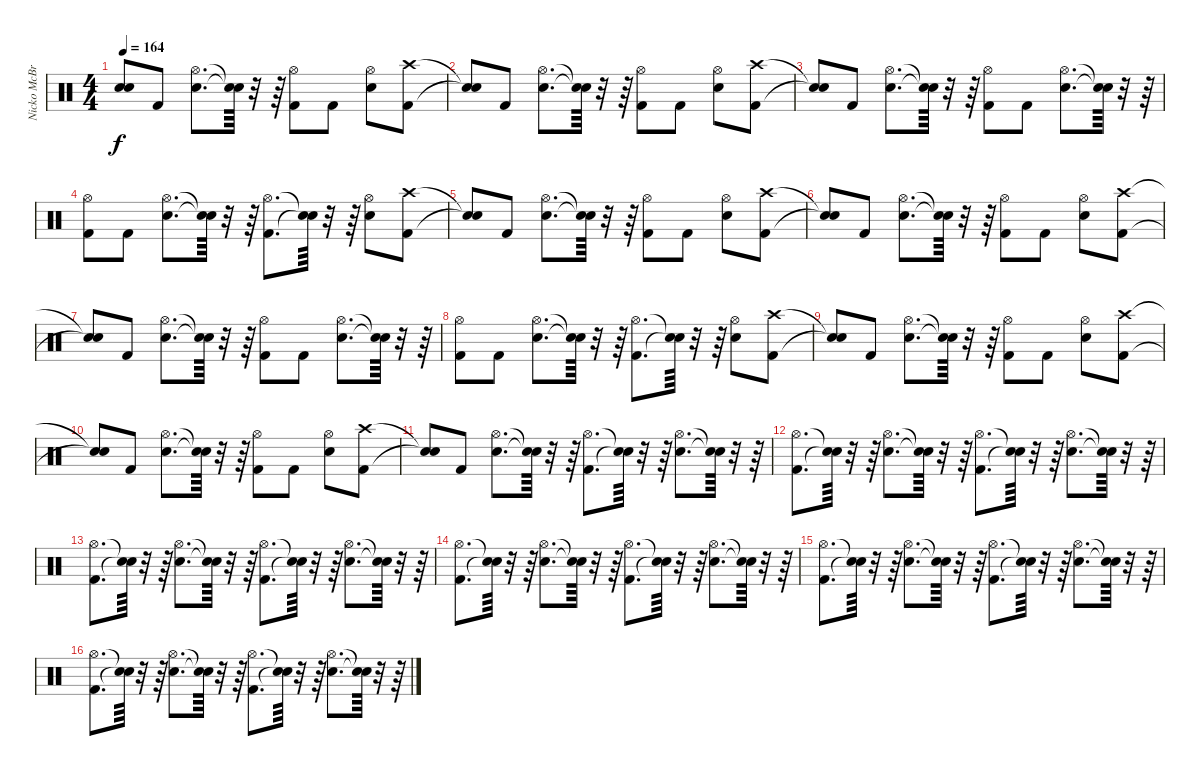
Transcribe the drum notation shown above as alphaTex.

\track ("Nicko McBrian (Drums)" "Nicko McBr") {instrument percussion}
\staff {score}
\articulation defaults
\ts (4 4)
\tempo 164
\clef neutral
\ks c
("Snare (hit)"{t} "Snare (hit)"{t}).8{dy f} "Kick (hit) 2".8 ("Snare (hit) 2" "Hi-Hat (open)").8{d} ("Snare (hit)"{t} "Snare (hit)"{t}).64 r.32 r.64 ("Kick (hit) 2" "Hi-Hat (open)").8 "Kick (hit) 2".8 ("Snare (hit) 2" "Hi-Hat (open)").8 ("Kick (hit) 2" "Crash high (hit)").8 |
("Snare (hit)"{t} "Snare (hit)"{t}).8 "Kick (hit) 2".8 ("Snare (hit) 2" "Hi-Hat (open)").8{d} ("Snare (hit)"{t} "Snare (hit)"{t}).64 r.32 r.64 ("Kick (hit) 2" "Hi-Hat (open)").8 "Kick (hit) 2".8 ("Snare (hit) 2" "Hi-Hat (open)").8 ("Kick (hit) 2" "Crash high (hit)").8 |
("Snare (hit)"{t} "Snare (hit)"{t}).8 "Kick (hit) 2".8 ("Snare (hit) 2" "Hi-Hat (open)").8{d} ("Snare (hit)"{t} "Snare (hit)"{t}).64 r.32 r.64 ("Kick (hit) 2" "Hi-Hat (open)").8 "Kick (hit) 2".8 ("Snare (hit) 2" "Hi-Hat (open)").8{d} ("Snare (hit)"{t} "Snare (hit)"{t}).64 r.32 r.64 |
("Kick (hit) 2" "Hi-Hat (open)").8 "Kick (hit) 2".8 ("Snare (hit) 2" "Hi-Hat (open)").8{d} ("Snare (hit)"{t} "Snare (hit)"{t}).64 r.32 r.64 ("Kick (hit) 2" "Hi-Hat (open)").8{d} ("Snare (hit)"{t} "Snare (hit)"{t}).64 r.32 r.64 ("Snare (hit) 2" "Hi-Hat (open)").8 ("Kick (hit) 2" "Crash high (hit)").8 |
("Snare (hit)"{t} "Snare (hit)"{t}).8 "Kick (hit) 2".8 ("Snare (hit) 2" "Hi-Hat (open)").8{d} ("Snare (hit)"{t} "Snare (hit)"{t}).64 r.32 r.64 ("Kick (hit) 2" "Hi-Hat (open)").8 "Kick (hit) 2".8 ("Snare (hit) 2" "Hi-Hat (open)").8 ("Kick (hit) 2" "Crash high (hit)").8 |
("Snare (hit)"{t} "Snare (hit)"{t}).8 "Kick (hit) 2".8 ("Snare (hit) 2" "Hi-Hat (open)").8{d} ("Snare (hit)"{t} "Snare (hit)"{t}).64 r.32 r.64 ("Kick (hit) 2" "Hi-Hat (open)").8 "Kick (hit) 2".8 ("Snare (hit) 2" "Hi-Hat (open)").8 ("Kick (hit) 2" "Crash high (hit)").8 |
("Snare (hit)"{t} "Snare (hit)"{t}).8 "Kick (hit) 2".8 ("Snare (hit) 2" "Hi-Hat (open)").8{d} ("Snare (hit)"{t} "Snare (hit)"{t}).64 r.32 r.64 ("Kick (hit) 2" "Hi-Hat (open)").8 "Kick (hit) 2".8 ("Snare (hit) 2" "Hi-Hat (open)").8{d} ("Snare (hit)"{t} "Snare (hit)"{t}).64 r.32 r.64 |
("Kick (hit) 2" "Hi-Hat (open)").8 "Kick (hit) 2".8 ("Snare (hit) 2" "Hi-Hat (open)").8{d} ("Snare (hit)"{t} "Snare (hit)"{t}).64 r.32 r.64 ("Kick (hit) 2" "Hi-Hat (open)").8{d} ("Snare (hit)"{t} "Snare (hit)"{t}).64 r.32 r.64 ("Snare (hit) 2" "Hi-Hat (open)").8 ("Kick (hit) 2" "Crash high (hit)").8 |
("Snare (hit)"{t} "Snare (hit)"{t}).8 "Kick (hit) 2".8 ("Snare (hit) 2" "Hi-Hat (open)").8{d} ("Snare (hit)"{t} "Snare (hit)"{t}).64 r.32 r.64 ("Kick (hit) 2" "Hi-Hat (open)").8 "Kick (hit) 2".8 ("Snare (hit) 2" "Hi-Hat (open)").8 ("Kick (hit) 2" "Crash high (hit)").8 |
("Snare (hit)"{t} "Snare (hit)"{t}).8 "Kick (hit) 2".8 ("Snare (hit) 2" "Hi-Hat (open)").8{d} ("Snare (hit)"{t} "Snare (hit)"{t}).64 r.32 r.64 ("Kick (hit) 2" "Hi-Hat (open)").8 "Kick (hit) 2".8 ("Snare (hit) 2" "Hi-Hat (open)").8 ("Kick (hit) 2" "Crash high (hit)").8 |
("Snare (hit)"{t} "Snare (hit)"{t}).8 "Kick (hit) 2".8 ("Snare (hit) 2" "Hi-Hat (open)").8{d} ("Snare (hit)"{t} "Snare (hit)"{t}).64 r.32 r.64 ("Kick (hit) 2" "Hi-Hat (open)").8{d} ("Snare (hit)"{t} "Snare (hit)"{t}).64 r.32 r.64 ("Snare (hit) 2" "Hi-Hat (open)").8{d} ("Snare (hit)"{t} "Snare (hit)"{t}).64 r.32 r.64 |
("Kick (hit) 2" "Hi-Hat (open)").8{d} ("Snare (hit)"{t} "Snare (hit)"{t}).64 r.32 r.64 ("Snare (hit) 2" "Hi-Hat (open)").8{d} ("Snare (hit)"{t} "Snare (hit)"{t}).64 r.32 r.64 ("Kick (hit) 2" "Hi-Hat (open)").8{d} ("Snare (hit)"{t} "Snare (hit)"{t}).64 r.32 r.64 ("Snare (hit) 2" "Hi-Hat (open)").8{d} ("Snare (hit)"{t} "Snare (hit)"{t}).64 r.32 r.64 |
("Kick (hit) 2" "Hi-Hat (open)").8{d} ("Snare (hit)"{t} "Snare (hit)"{t}).64 r.32 r.64 ("Snare (hit) 2" "Hi-Hat (open)").8{d} ("Snare (hit)"{t} "Snare (hit)"{t}).64 r.32 r.64 ("Kick (hit) 2" "Hi-Hat (open)").8{d} ("Snare (hit)"{t} "Snare (hit)"{t}).64 r.32 r.64 ("Snare (hit) 2" "Hi-Hat (open)").8{d} ("Snare (hit)"{t} "Snare (hit)"{t}).64 r.32 r.64 |
("Kick (hit) 2" "Hi-Hat (open)").8{d} ("Snare (hit)"{t} "Snare (hit)"{t}).64 r.32 r.64 ("Snare (hit) 2" "Hi-Hat (open)").8{d} ("Snare (hit)"{t} "Snare (hit)"{t}).64 r.32 r.64 ("Kick (hit) 2" "Hi-Hat (open)").8{d} ("Snare (hit)"{t} "Snare (hit)"{t}).64 r.32 r.64 ("Snare (hit) 2" "Hi-Hat (open)").8{d} ("Snare (hit)"{t} "Snare (hit)"{t}).64 r.32 r.64 |
("Kick (hit) 2" "Hi-Hat (open)").8{d} ("Snare (hit)"{t} "Snare (hit)"{t}).64 r.32 r.64 ("Snare (hit) 2" "Hi-Hat (open)").8{d} ("Snare (hit)"{t} "Snare (hit)"{t}).64 r.32 r.64 ("Kick (hit) 2" "Hi-Hat (open)").8{d} ("Snare (hit)"{t} "Snare (hit)"{t}).64 r.32 r.64 ("Snare (hit) 2" "Hi-Hat (open)").8{d} ("Snare (hit)"{t} "Snare (hit)"{t}).64 r.32 r.64 |
("Kick (hit) 2" "Hi-Hat (open)").8{d} ("Snare (hit)"{t} "Snare (hit)"{t}).64 r.32 r.64 ("Snare (hit) 2" "Hi-Hat (open)").8{d} ("Snare (hit)"{t} "Snare (hit)"{t}).64 r.32 r.64 ("Kick (hit) 2" "Hi-Hat (open)").8{d} ("Snare (hit)"{t} "Snare (hit)"{t}).64 r.32 r.64 ("Snare (hit) 2" "Hi-Hat (open)").8{d} ("Snare (hit)"{t} "Snare (hit)"{t}).64 r.32 r.64
